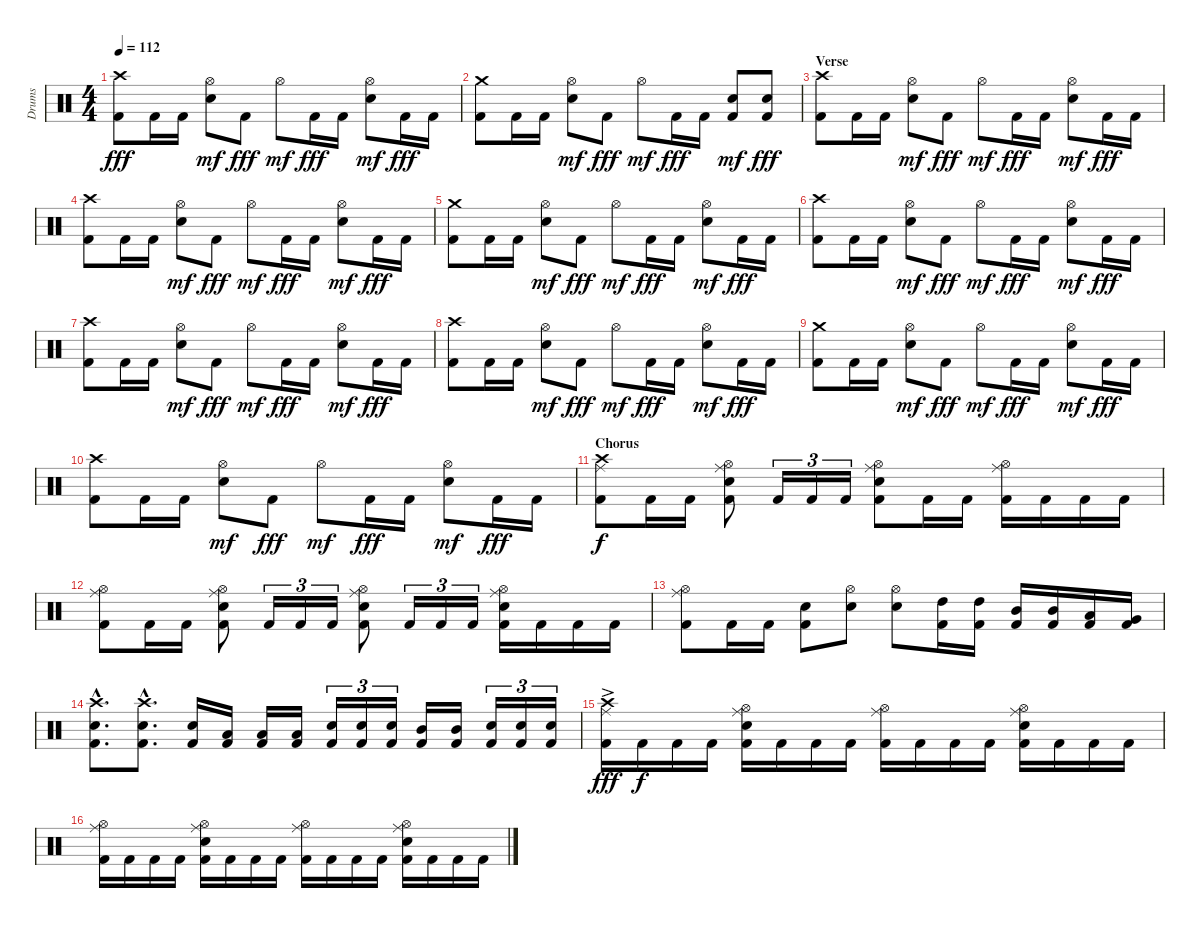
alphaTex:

\track ("Drums" "Drums") {instrument percussion}
\staff {score}
\articulation defaults
\ts (4 4)
\tempo 112
\clef neutral
\ks c
("Crash high (hit)" "Kick (hit) 2").8{dy fff} "Kick (hit) 2".16 "Kick (hit) 2".16 ("Electric Snare (hit)" "Hi-Hat (open)").8{dy mf} "Kick (hit) 2".8{dy fff} "Hi-Hat (open)".8{dy mf} "Kick (hit) 2".16{dy fff} "Kick (hit) 2".16 ("Electric Snare (hit)" "Hi-Hat (open)").8{dy mf} "Kick (hit) 2".16{dy fff} "Kick (hit) 2".16 |
("Crash medium (hit)" "Kick (hit) 2").8 "Kick (hit) 2".16 "Kick (hit) 2".16 ("Electric Snare (hit)" "Hi-Hat (open)").8{dy mf} "Kick (hit) 2".8{dy fff} "Hi-Hat (open)".8{dy mf} "Kick (hit) 2".16{dy fff} "Kick (hit) 2".16 ("Kick (hit) 2" "Snare (hit) 2").8{dy mf} ("Kick (hit) 2" "Snare (hit) 2").8{dy fff} |
\section ("" "Verse ")
("Crash high (hit)" "Kick (hit) 2").8 "Kick (hit) 2".16 "Kick (hit) 2".16 ("Electric Snare (hit)" "Hi-Hat (open)").8{dy mf} "Kick (hit) 2".8{dy fff} "Hi-Hat (open)".8{dy mf} "Kick (hit) 2".16{dy fff} "Kick (hit) 2".16 ("Electric Snare (hit)" "Hi-Hat (open)").8{dy mf} "Kick (hit) 2".16{dy fff} "Kick (hit) 2".16 |
("Crash high (hit)" "Kick (hit) 2").8 "Kick (hit) 2".16 "Kick (hit) 2".16 ("Electric Snare (hit)" "Hi-Hat (open)").8{dy mf} "Kick (hit) 2".8{dy fff} "Hi-Hat (open)".8{dy mf} "Kick (hit) 2".16{dy fff} "Kick (hit) 2".16 ("Electric Snare (hit)" "Hi-Hat (open)").8{dy mf} "Kick (hit) 2".16{dy fff} "Kick (hit) 2".16 |
("Crash medium (hit)" "Kick (hit) 2").8 "Kick (hit) 2".16 "Kick (hit) 2".16 ("Electric Snare (hit)" "Hi-Hat (open)").8{dy mf} "Kick (hit) 2".8{dy fff} "Hi-Hat (open)".8{dy mf} "Kick (hit) 2".16{dy fff} "Kick (hit) 2".16 ("Electric Snare (hit)" "Hi-Hat (open)").8{dy mf} "Kick (hit) 2".16{dy fff} "Kick (hit) 2".16 |
("Crash high (hit)" "Kick (hit) 2").8 "Kick (hit) 2".16 "Kick (hit) 2".16 ("Electric Snare (hit)" "Hi-Hat (open)").8{dy mf} "Kick (hit) 2".8{dy fff} "Hi-Hat (open)".8{dy mf} "Kick (hit) 2".16{dy fff} "Kick (hit) 2".16 ("Electric Snare (hit)" "Hi-Hat (open)").8{dy mf} "Kick (hit) 2".16{dy fff} "Kick (hit) 2".16 |
("Crash high (hit)" "Kick (hit) 2").8 "Kick (hit) 2".16 "Kick (hit) 2".16 ("Electric Snare (hit)" "Hi-Hat (open)").8{dy mf} "Kick (hit) 2".8{dy fff} "Hi-Hat (open)".8{dy mf} "Kick (hit) 2".16{dy fff} "Kick (hit) 2".16 ("Electric Snare (hit)" "Hi-Hat (open)").8{dy mf} "Kick (hit) 2".16{dy fff} "Kick (hit) 2".16 |
("Crash high (hit)" "Kick (hit) 2").8 "Kick (hit) 2".16 "Kick (hit) 2".16 ("Electric Snare (hit)" "Hi-Hat (open)").8{dy mf} "Kick (hit) 2".8{dy fff} "Hi-Hat (open)".8{dy mf} "Kick (hit) 2".16{dy fff} "Kick (hit) 2".16 ("Electric Snare (hit)" "Hi-Hat (open)").8{dy mf} "Kick (hit) 2".16{dy fff} "Kick (hit) 2".16 |
("Crash medium (hit)" "Kick (hit) 2").8 "Kick (hit) 2".16 "Kick (hit) 2".16 ("Electric Snare (hit)" "Hi-Hat (open)").8{dy mf} "Kick (hit) 2".8{dy fff} "Hi-Hat (open)".8{dy mf} "Kick (hit) 2".16{dy fff} "Kick (hit) 2".16 ("Electric Snare (hit)" "Hi-Hat (open)").8{dy mf} "Kick (hit) 2".16{dy fff} "Kick (hit) 2".16 |
("Crash high (hit)" "Kick (hit) 2").8 "Kick (hit) 2".16 "Kick (hit) 2".16 ("Electric Snare (hit)" "Hi-Hat (open)").8{dy mf} "Kick (hit) 2".8{dy fff} "Hi-Hat (open)".8{dy mf} "Kick (hit) 2".16{dy fff} "Kick (hit) 2".16 ("Electric Snare (hit)" "Hi-Hat (open)").8{dy mf} "Kick (hit) 2".16{dy fff} "Kick (hit) 2".16 |
\section ("" "Chorus")
("Crash high (hit)" "Ride (middle)" "Kick (hit) 2").8{dy f} "Kick (hit) 2".16 "Kick (hit) 2".16 ("Hi-Hat (open)" "Ride (middle)" "Electric Snare (hit)" "Kick (hit) 2").8 "Kick (hit) 2".16{tu (3 2)} "Kick (hit) 2".16{tu (3 2)} "Kick (hit) 2".16{tu (3 2)} ("Hi-Hat (open)" "Ride (middle)" "Electric Snare (hit)" "Kick (hit) 2").8 "Kick (hit) 2".16 "Kick (hit) 2".16 ("Hi-Hat (open)" "Ride (middle)" "Kick (hit) 2").16 "Kick (hit) 2".16 "Kick (hit) 2".16 "Kick (hit) 2".16 |
("Hi-Hat (open)" "Ride (middle)" "Kick (hit) 2").8 "Kick (hit) 2".16 "Kick (hit) 2".16 ("Hi-Hat (open)" "Ride (middle)" "Electric Snare (hit)" "Kick (hit) 2").8 "Kick (hit) 2".16{tu (3 2)} "Kick (hit) 2".16{tu (3 2)} "Kick (hit) 2".16{tu (3 2)} ("Hi-Hat (open)" "Ride (middle)" "Electric Snare (hit)" "Kick (hit) 2").8 "Kick (hit) 2".16{tu (3 2)} "Kick (hit) 2".16{tu (3 2)} "Kick (hit) 2".16{tu (3 2)} ("Hi-Hat (open)" "Ride (middle)" "Electric Snare (hit)" "Kick (hit) 2").16 "Kick (hit) 2".16 "Kick (hit) 2".16 "Kick (hit) 2".16 |
("Hi-Hat (open)" "Ride (middle)" "Kick (hit) 2").8 "Kick (hit) 2".16 "Kick (hit) 2".16 ("Electric Snare (hit)" "Kick (hit) 2").8 ("Hi-Hat (open)" "Electric Snare (hit)").8 ("Hi-Hat (open)" "Electric Snare (hit)").8 ("High Tom (hit)" "Kick (hit) 2").16 ("High Tom (hit)" "Kick (hit) 2").16 ("Mid Tom (hit)" "Kick (hit) 2").16 ("Mid Tom (hit)" "Kick (hit) 2").16 ("Low Tom (hit)" "Kick (hit) 2").16 ("Very Low Tom (hit)" "Kick (hit) 2").16 |
("Crash high (hit)"{hac} "Snare (hit) 2"{hac} "Kick (hit) 2"{hac}).8{d} ("Crash high (hit)"{hac} "Snare (hit) 2"{hac} "Kick (hit) 2"{hac}).8{d} ("Snare (hit) 2" "Kick (hit) 2").16 ("Low Tom (hit)" "Kick (hit) 2").16 ("Low Tom (hit)" "Kick (hit) 2").16 ("Low Tom (hit)" "Kick (hit) 2").16 ("Snare (hit) 2" "Kick (hit) 2").16{tu (3 2)} ("Snare (hit) 2" "Kick (hit) 2").16{tu (3 2)} ("Snare (hit) 2" "Kick (hit) 2").16{tu (3 2)} ("Mid Tom (hit)" "Kick (hit) 2").16 ("Mid Tom (hit)" "Kick (hit) 2").16 ("Snare (hit) 2" "Kick (hit) 2").16{tu (3 2)} ("Snare (hit) 2" "Kick (hit) 2").16{tu (3 2)} ("Snare (hit) 2" "Kick (hit) 2").16{tu (3 2)} |
("Crash high (hit)"{ac} "Ride (middle)" "Kick (hit) 2").16{dy fff} "Kick (hit) 2".16{dy f} "Kick (hit) 2".16 "Kick (hit) 2".16 ("Hi-Hat (open)" "Ride (middle)" "Snare (hit) 2" "Kick (hit) 2").16 "Kick (hit) 2".16 "Kick (hit) 2".16 "Kick (hit) 2".16 ("Hi-Hat (open)" "Ride (middle)" "Kick (hit) 2").16 "Kick (hit) 2".16 "Kick (hit) 2".16 "Kick (hit) 2".16 ("Hi-Hat (open)" "Ride (middle)" "Snare (hit) 2" "Kick (hit) 2").16 "Kick (hit) 2".16 "Kick (hit) 2".16 "Kick (hit) 2".16 |
("Hi-Hat (open)" "Ride (middle)" "Kick (hit) 2").16 "Kick (hit) 2".16 "Kick (hit) 2".16 "Kick (hit) 2".16 ("Hi-Hat (open)" "Ride (middle)" "Snare (hit) 2" "Kick (hit) 2").16 "Kick (hit) 2".16 "Kick (hit) 2".16 "Kick (hit) 2".16 ("Hi-Hat (open)" "Ride (middle)" "Kick (hit) 2").16 "Kick (hit) 2".16 "Kick (hit) 2".16 "Kick (hit) 2".16 ("Hi-Hat (open)" "Ride (middle)" "Snare (hit) 2" "Kick (hit) 2").16 "Kick (hit) 2".16 "Kick (hit) 2".16 "Kick (hit) 2".16
